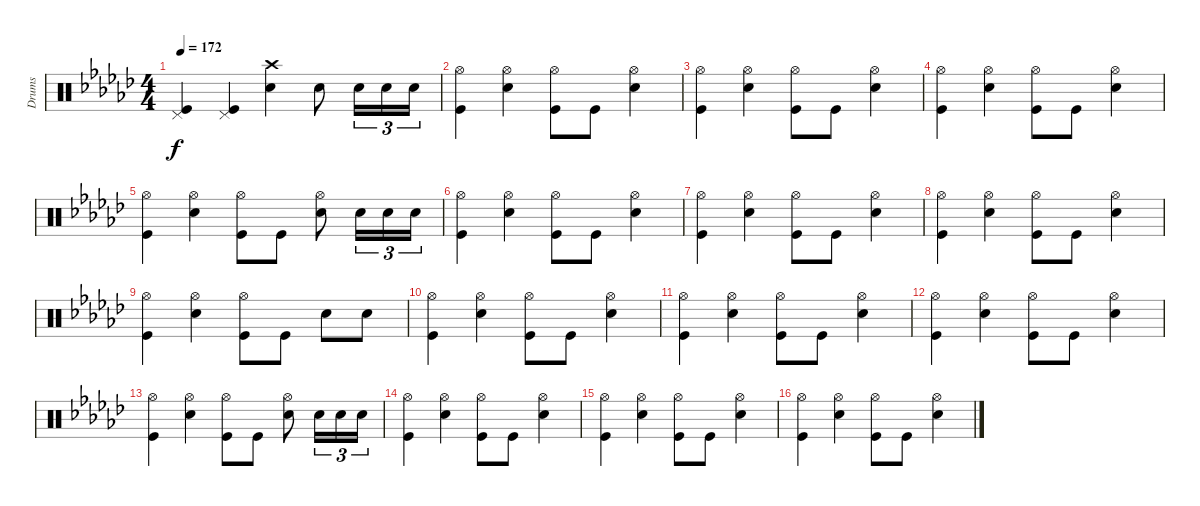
\track ("Drums" "Drums") {instrument percussion}
\staff {score}
\articulation defaults
\ts (4 4)
\tempo 172
\clef neutral
\ks ebminor
("Pedal Hi-Hat (hit)" "Kick (hit)").4{dy f} ("Pedal Hi-Hat (hit)" "Kick (hit)").4 ("Crash high (hit)" "Snare (hit) 2").4 "Snare (hit) 2".8 "Snare (hit) 2".16{tu (3 2)} "Snare (hit) 2".16{tu (3 2)} "Snare (hit) 2".16{tu (3 2)} |
("Hi-Hat (open)" "Kick (hit)").4 ("Hi-Hat (open)" "Snare (hit) 2").4 ("Hi-Hat (open)" "Kick (hit)").8 "Kick (hit)".8 ("Hi-Hat (open)" "Snare (hit) 2").4 |
("Hi-Hat (open)" "Kick (hit)").4 ("Hi-Hat (open)" "Snare (hit) 2").4 ("Hi-Hat (open)" "Kick (hit)").8 "Kick (hit)".8 ("Hi-Hat (open)" "Snare (hit) 2").4 |
("Hi-Hat (open)" "Kick (hit)").4 ("Hi-Hat (open)" "Snare (hit) 2").4 ("Hi-Hat (open)" "Kick (hit)").8 "Kick (hit)".8 ("Hi-Hat (open)" "Snare (hit) 2").4 |
("Hi-Hat (open)" "Kick (hit)").4 ("Hi-Hat (open)" "Snare (hit) 2").4 ("Hi-Hat (open)" "Kick (hit)").8 "Kick (hit)".8 ("Hi-Hat (open)" "Snare (hit) 2").8 "Snare (hit) 2".16{tu (3 2)} "Snare (hit) 2".16{tu (3 2)} "Snare (hit) 2".16{tu (3 2)} |
("Hi-Hat (open)" "Kick (hit)").4 ("Hi-Hat (open)" "Snare (hit) 2").4 ("Hi-Hat (open)" "Kick (hit)").8 "Kick (hit)".8 ("Hi-Hat (open)" "Snare (hit) 2").4 |
("Hi-Hat (open)" "Kick (hit)").4 ("Hi-Hat (open)" "Snare (hit) 2").4 ("Hi-Hat (open)" "Kick (hit)").8 "Kick (hit)".8 ("Hi-Hat (open)" "Snare (hit) 2").4 |
("Hi-Hat (open)" "Kick (hit)").4 ("Hi-Hat (open)" "Snare (hit) 2").4 ("Hi-Hat (open)" "Kick (hit)").8 "Kick (hit)".8 ("Hi-Hat (open)" "Snare (hit) 2").4 |
("Hi-Hat (open)" "Kick (hit)").4 ("Hi-Hat (open)" "Snare (hit) 2").4 ("Hi-Hat (open)" "Kick (hit)").8 "Kick (hit)".8 "Snare (hit) 2".8 "Snare (hit) 2".8 |
("Hi-Hat (open)" "Kick (hit)").4 ("Hi-Hat (open)" "Snare (hit) 2").4 ("Hi-Hat (open)" "Kick (hit)").8 "Kick (hit)".8 ("Hi-Hat (open)" "Snare (hit) 2").4 |
("Hi-Hat (open)" "Kick (hit)").4 ("Hi-Hat (open)" "Snare (hit) 2").4 ("Hi-Hat (open)" "Kick (hit)").8 "Kick (hit)".8 ("Hi-Hat (open)" "Snare (hit) 2").4 |
("Hi-Hat (open)" "Kick (hit)").4 ("Hi-Hat (open)" "Snare (hit) 2").4 ("Hi-Hat (open)" "Kick (hit)").8 "Kick (hit)".8 ("Hi-Hat (open)" "Snare (hit) 2").4 |
("Hi-Hat (open)" "Kick (hit)").4 ("Hi-Hat (open)" "Snare (hit) 2").4 ("Hi-Hat (open)" "Kick (hit)").8 "Kick (hit)".8 ("Hi-Hat (open)" "Snare (hit) 2").8 "Snare (hit) 2".16{tu (3 2)} "Snare (hit) 2".16{tu (3 2)} "Snare (hit) 2".16{tu (3 2)} |
("Hi-Hat (open)" "Kick (hit)").4 ("Hi-Hat (open)" "Snare (hit) 2").4 ("Hi-Hat (open)" "Kick (hit)").8 "Kick (hit)".8 ("Hi-Hat (open)" "Snare (hit) 2").4 |
("Hi-Hat (open)" "Kick (hit)").4 ("Hi-Hat (open)" "Snare (hit) 2").4 ("Hi-Hat (open)" "Kick (hit)").8 "Kick (hit)".8 ("Hi-Hat (open)" "Snare (hit) 2").4 |
("Hi-Hat (open)" "Kick (hit)").4 ("Hi-Hat (open)" "Snare (hit) 2").4 ("Hi-Hat (open)" "Kick (hit)").8 "Kick (hit)".8 ("Hi-Hat (open)" "Snare (hit) 2").4
